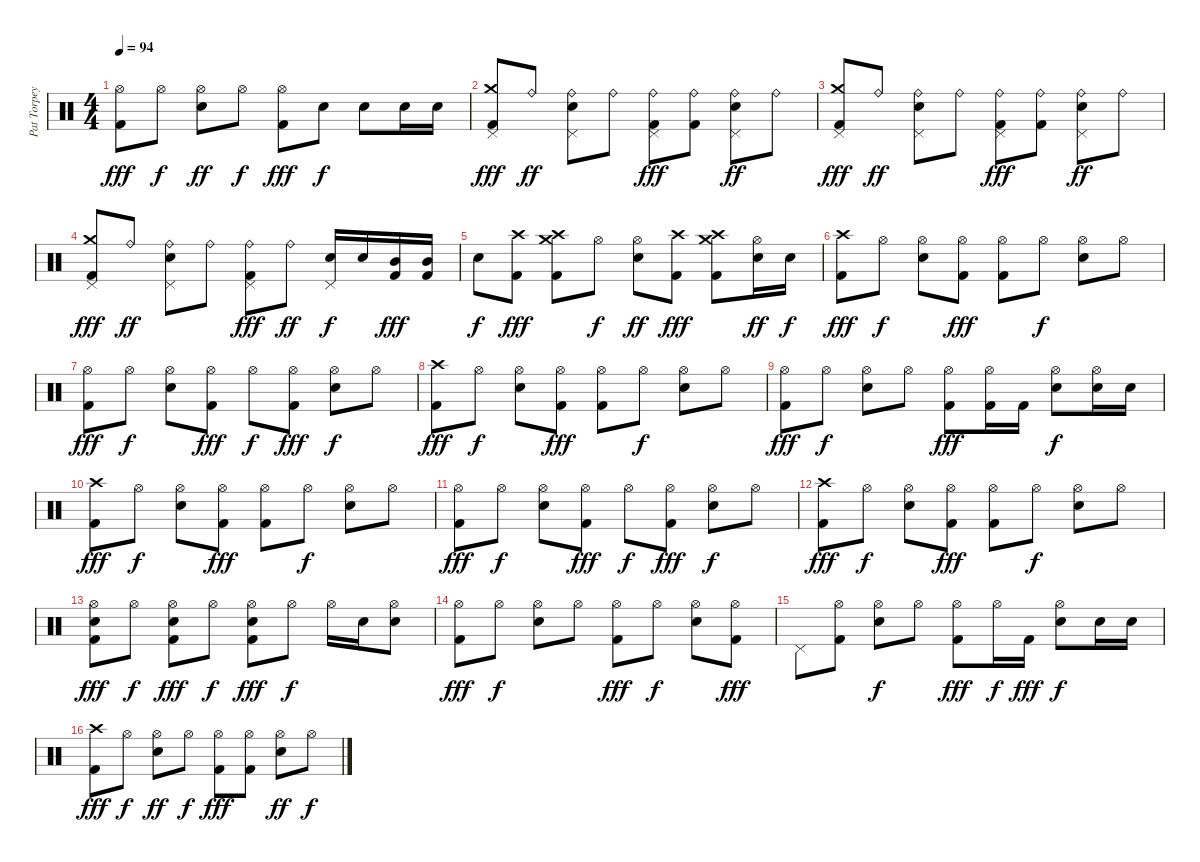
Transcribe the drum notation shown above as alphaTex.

\track ("Pat Torpey (Toro)" "Pat Torpey") {instrument percussion}
\staff {score}
\articulation defaults
\ts (4 4)
\tempo 94
\clef neutral
\ks c
("Hi-Hat (open)" "Kick (hit) 2").8{dy fff} "Hi-Hat (open)".8{dy f} ("Hi-Hat (open)" "Snare (hit) 2").8{dy ff} "Hi-Hat (open)".8{dy f} ("Hi-Hat (open)" "Kick (hit) 2").8{dy fff} "Snare (hit) 2".8{dy f} "Snare (hit) 2".8 "Snare (hit) 2".16 "Snare (hit) 2".16 |
("Crash medium (hit)" "Kick (hit) 2" "Pedal Hi-Hat (hit)").8{dy fff} "Ride (bell)".8{dy ff} ("Ride (bell)" "Snare (hit) 2" "Pedal Hi-Hat (hit)").8 "Ride (bell)".8 ("Ride (bell)" "Kick (hit) 2" "Pedal Hi-Hat (hit)").8{dy fff} ("Ride (bell)" "Kick (hit) 2").8 ("Ride (bell)" "Snare (hit) 2" "Pedal Hi-Hat (hit)").8{dy ff} "Ride (bell)".8 |
("Crash medium (hit)" "Kick (hit) 2" "Pedal Hi-Hat (hit)").8{dy fff} "Ride (bell)".8{dy ff} ("Ride (bell)" "Snare (hit) 2" "Pedal Hi-Hat (hit)").8 "Ride (bell)".8 ("Ride (bell)" "Kick (hit) 2" "Pedal Hi-Hat (hit)").8{dy fff} ("Ride (bell)" "Kick (hit) 2").8 ("Ride (bell)" "Snare (hit) 2" "Pedal Hi-Hat (hit)").8{dy ff} "Ride (bell)".8 |
("Crash medium (hit)" "Kick (hit) 2" "Pedal Hi-Hat (hit)").8{dy fff} "Ride (bell)".8{dy ff} ("Ride (bell)" "Snare (hit) 2" "Pedal Hi-Hat (hit)").8 "Ride (bell)".8 ("Ride (bell)" "Kick (hit) 2" "Pedal Hi-Hat (hit)").8{dy fff} "Ride (bell)".8{dy ff} ("Snare (hit) 2" "Pedal Hi-Hat (hit)").16{dy f} "Snare (hit) 2".16 ("Mid Tom (hit)" "Kick (hit) 2").16{dy fff} ("Mid Tom (hit)" "Kick (hit) 2").16 |
"Snare (hit) 2".8{dy f} ("Crash high (hit)" "Kick (hit) 2").8{dy fff} ("Crash high (hit)" "Crash medium (hit)" "Kick (hit) 2").8 "Hi-Hat (open)".8{dy f} ("Hi-Hat (open)" "Snare (hit) 2").8{dy ff} ("Crash high (hit)" "Kick (hit) 2").8{dy fff} ("Crash high (hit)" "Crash medium (hit)" "Kick (hit) 2").8 ("Hi-Hat (open)" "Snare (hit) 2").16{dy ff} "Snare (hit) 2".16{dy f} |
("Crash high (hit)" "Kick (hit) 2").8{dy fff} "Hi-Hat (open)".8{dy f} ("Hi-Hat (open)" "Snare (hit) 2").8 ("Hi-Hat (open)" "Kick (hit) 2").8{dy fff} ("Hi-Hat (open)" "Kick (hit) 2").8 "Hi-Hat (open)".8{dy f} ("Hi-Hat (open)" "Snare (hit) 2").8 "Hi-Hat (open)".8 |
("Hi-Hat (open)" "Kick (hit) 2").8{dy fff} "Hi-Hat (open)".8{dy f} ("Hi-Hat (open)" "Snare (hit) 2").8 ("Hi-Hat (open)" "Kick (hit) 2").8{dy fff} "Hi-Hat (open)".8{dy f} ("Hi-Hat (open)" "Kick (hit) 2").8{dy fff} ("Hi-Hat (open)" "Snare (hit) 2").8{dy f} "Hi-Hat (open)".8 |
("Crash high (hit)" "Kick (hit) 2").8{dy fff} "Hi-Hat (open)".8{dy f} ("Hi-Hat (open)" "Snare (hit) 2").8 ("Hi-Hat (open)" "Kick (hit) 2").8{dy fff} ("Hi-Hat (open)" "Kick (hit) 2").8 "Hi-Hat (open)".8{dy f} ("Hi-Hat (open)" "Snare (hit) 2").8 "Hi-Hat (open)".8 |
("Hi-Hat (open)" "Kick (hit) 2").8{dy fff} "Hi-Hat (open)".8{dy f} ("Hi-Hat (open)" "Snare (hit) 2").8 "Hi-Hat (open)".8 ("Hi-Hat (open)" "Kick (hit) 2").8{dy fff} ("Hi-Hat (open)" "Kick (hit) 2").16 "Kick (hit) 2".16 ("Hi-Hat (open)" "Snare (hit) 2").8{dy f} ("Hi-Hat (open)" "Snare (hit) 2").16 "Snare (hit) 2".16 |
("Crash high (hit)" "Kick (hit) 2").8{dy fff} "Hi-Hat (open)".8{dy f} ("Hi-Hat (open)" "Snare (hit) 2").8 ("Hi-Hat (open)" "Kick (hit) 2").8{dy fff} ("Hi-Hat (open)" "Kick (hit) 2").8 "Hi-Hat (open)".8{dy f} ("Hi-Hat (open)" "Snare (hit) 2").8 "Hi-Hat (open)".8 |
("Hi-Hat (open)" "Kick (hit) 2").8{dy fff} "Hi-Hat (open)".8{dy f} ("Hi-Hat (open)" "Snare (hit) 2").8 ("Hi-Hat (open)" "Kick (hit) 2").8{dy fff} "Hi-Hat (open)".8{dy f} ("Hi-Hat (open)" "Kick (hit) 2").8{dy fff} ("Hi-Hat (open)" "Snare (hit) 2").8{dy f} "Hi-Hat (open)".8 |
("Crash high (hit)" "Kick (hit) 2").8{dy fff} "Hi-Hat (open)".8{dy f} ("Hi-Hat (open)" "Snare (hit) 2").8 ("Hi-Hat (open)" "Kick (hit) 2").8{dy fff} ("Hi-Hat (open)" "Kick (hit) 2").8 "Hi-Hat (open)".8{dy f} ("Hi-Hat (open)" "Snare (hit) 2").8 "Hi-Hat (open)".8 |
("Hi-Hat (open)" "Snare (hit) 2" "Kick (hit) 2").8{dy fff} "Hi-Hat (open)".8{dy f} ("Hi-Hat (open)" "Snare (hit) 2" "Kick (hit) 2").8{dy fff} "Hi-Hat (open)".8{dy f} ("Hi-Hat (open)" "Snare (hit) 2" "Kick (hit) 2").8{dy fff} "Hi-Hat (open)".8{dy f} "Hi-Hat (open)".16 "Snare (hit) 2".16 ("Hi-Hat (open)" "Snare (hit) 2").8 |
("Hi-Hat (open)" "Kick (hit) 2").8{dy fff} "Hi-Hat (open)".8{dy f} ("Hi-Hat (open)" "Snare (hit) 2").8 "Hi-Hat (open)".8 ("Hi-Hat (open)" "Kick (hit) 2").8{dy fff} "Hi-Hat (open)".8{dy f} ("Hi-Hat (open)" "Snare (hit) 2").8 ("Hi-Hat (open)" "Kick (hit) 2").8{dy fff} |
"Pedal Hi-Hat (hit)".8 ("Hi-Hat (open)" "Kick (hit) 2").8 ("Hi-Hat (open)" "Snare (hit) 2").8{dy f} "Hi-Hat (open)".8 ("Hi-Hat (open)" "Kick (hit) 2").8{dy fff} "Hi-Hat (open)".16{dy f} "Kick (hit) 2".16{dy fff} ("Hi-Hat (open)" "Snare (hit) 2").8{dy f} "Snare (hit) 2".16 "Snare (hit) 2".16 |
("Crash high (hit)" "Kick (hit) 2").8{dy fff} "Hi-Hat (open)".8{dy f} ("Hi-Hat (open)" "Snare (hit) 2").8{dy ff} "Hi-Hat (open)".8{dy f} ("Hi-Hat (open)" "Kick (hit) 2").8{dy fff} ("Hi-Hat (open)" "Kick (hit) 2").8 ("Hi-Hat (open)" "Snare (hit) 2").8{dy ff} "Hi-Hat (open)".8{dy f}
